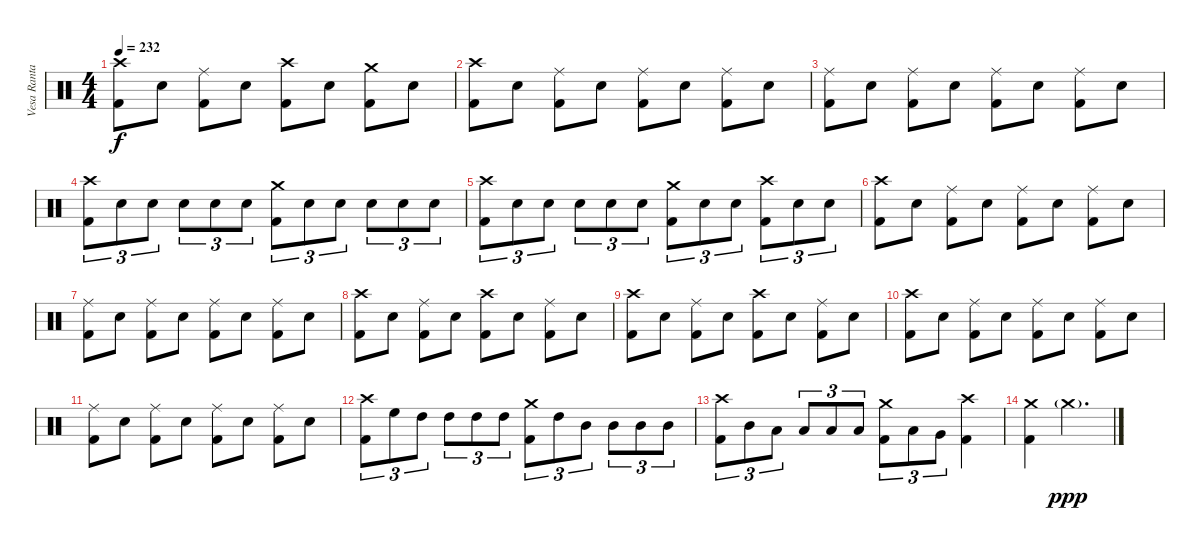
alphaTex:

\track ("Vesa Ranta" "Vesa Ranta") {instrument percussion}
\staff {score}
\articulation defaults
\ts (4 4)
\tempo 232
\clef neutral
\ks c
("Crash high (hit)" "Kick (hit) 2").8{dy f} "Electric Snare (hit)".8 ("Ride (middle)" "Kick (hit) 2").8 "Electric Snare (hit)".8 ("Crash high (hit)" "Kick (hit) 2").8 "Electric Snare (hit)".8 ("Crash medium (hit)" "Kick (hit) 2").8 "Electric Snare (hit)".8 |
("Crash high (hit)" "Kick (hit) 2").8 "Electric Snare (hit)".8 ("Ride (middle)" "Kick (hit) 2").8 "Electric Snare (hit)".8 ("Ride (middle)" "Kick (hit) 2").8 "Electric Snare (hit)".8 ("Ride (middle)" "Kick (hit) 2").8 "Electric Snare (hit)".8 |
("Ride (middle)" "Kick (hit) 2").8 "Electric Snare (hit)".8 ("Ride (middle)" "Kick (hit) 2").8 "Electric Snare (hit)".8 ("Ride (middle)" "Kick (hit) 2").8 "Electric Snare (hit)".8 ("Ride (middle)" "Kick (hit) 2").8 "Electric Snare (hit)".8 |
("Crash high (hit)" "Kick (hit) 2").8{tu (3 2)} "Electric Snare (hit)".8{tu (3 2)} "Electric Snare (hit)".8{tu (3 2)} "Electric Snare (hit)".8{tu (3 2)} "Electric Snare (hit)".8{tu (3 2)} "Electric Snare (hit)".8{tu (3 2)} ("Crash medium (hit)" "Kick (hit) 2").8{tu (3 2)} "Electric Snare (hit)".8{tu (3 2)} "Electric Snare (hit)".8{tu (3 2)} "Electric Snare (hit)".8{tu (3 2)} "Electric Snare (hit)".8{tu (3 2)} "Electric Snare (hit)".8{tu (3 2)} |
("Crash high (hit)" "Kick (hit) 2").8{tu (3 2)} "Electric Snare (hit)".8{tu (3 2)} "Electric Snare (hit)".8{tu (3 2)} "Electric Snare (hit)".8{tu (3 2)} "Electric Snare (hit)".8{tu (3 2)} "Electric Snare (hit)".8{tu (3 2)} ("Crash medium (hit)" "Kick (hit) 2").8{tu (3 2)} "Electric Snare (hit)".8{tu (3 2)} "Electric Snare (hit)".8{tu (3 2)} ("Crash high (hit)" "Kick (hit) 2").8{tu (3 2)} "Electric Snare (hit)".8{tu (3 2)} "Electric Snare (hit)".8{tu (3 2)} |
("Crash high (hit)" "Kick (hit) 2").8 "Electric Snare (hit)".8 ("Ride (middle)" "Kick (hit) 2").8 "Electric Snare (hit)".8 ("Ride (middle)" "Kick (hit) 2").8 "Electric Snare (hit)".8 ("Ride (middle)" "Kick (hit) 2").8 "Electric Snare (hit)".8 |
("Ride (middle)" "Kick (hit) 2").8 "Electric Snare (hit)".8 ("Ride (middle)" "Kick (hit) 2").8 "Electric Snare (hit)".8 ("Ride (middle)" "Kick (hit) 2").8 "Electric Snare (hit)".8 ("Ride (middle)" "Kick (hit) 2").8 "Electric Snare (hit)".8 |
("Crash high (hit)" "Kick (hit) 2").8 "Electric Snare (hit)".8 ("Ride (middle)" "Kick (hit) 2").8 "Electric Snare (hit)".8 ("Crash high (hit)" "Kick (hit) 2").8 "Electric Snare (hit)".8 ("Ride (middle)" "Kick (hit) 2").8 "Electric Snare (hit)".8 |
("Crash high (hit)" "Kick (hit) 2").8 "Electric Snare (hit)".8 ("Ride (middle)" "Kick (hit) 2").8 "Electric Snare (hit)".8 ("Crash high (hit)" "Kick (hit) 2").8 "Electric Snare (hit)".8 ("Ride (middle)" "Kick (hit) 2").8 "Electric Snare (hit)".8 |
("Crash high (hit)" "Kick (hit) 2").8 "Electric Snare (hit)".8 ("Ride (middle)" "Kick (hit) 2").8 "Electric Snare (hit)".8 ("Ride (middle)" "Kick (hit) 2").8 "Electric Snare (hit)".8 ("Ride (middle)" "Kick (hit) 2").8 "Electric Snare (hit)".8 |
("Ride (middle)" "Kick (hit) 2").8 "Electric Snare (hit)".8 ("Ride (middle)" "Kick (hit) 2").8 "Electric Snare (hit)".8 ("Ride (middle)" "Kick (hit) 2").8 "Electric Snare (hit)".8 ("Ride (middle)" "Kick (hit) 2").8 "Electric Snare (hit)".8 |
("Crash high (hit)" "Kick (hit) 2").8{tu (3 2)} "High Floor Tom (hit)".8{tu (3 2)} "High Tom (hit)".8{tu (3 2)} "High Tom (hit)".8{tu (3 2)} "High Tom (hit)".8{tu (3 2)} "High Tom (hit)".8{tu (3 2)} ("Crash medium (hit)" "Kick (hit) 2").8{tu (3 2)} "High Tom (hit)".8{tu (3 2)} "Mid Tom (hit)".8{tu (3 2)} "Mid Tom (hit)".8{tu (3 2)} "Mid Tom (hit)".8{tu (3 2)} "Mid Tom (hit)".8{tu (3 2)} |
("Crash high (hit)" "Kick (hit) 2").8{tu (3 2)} "Mid Tom (hit)".8{tu (3 2)} "Low Tom (hit)".8{tu (3 2)} "Low Tom (hit)".8{tu (3 2)} "Low Tom (hit)".8{tu (3 2)} "Low Tom (hit)".8{tu (3 2)} ("Crash medium (hit)" "Kick (hit) 2").8{tu (3 2)} "Low Tom (hit)".8{tu (3 2)} "Very Low Tom (hit)".8{tu (3 2)} ("Crash high (hit)" "Kick (hit) 2").4 |
("Crash medium (hit)" "Kick (hit) 2").4 "Crash medium (hit)"{g}.2{d dy ppp}
